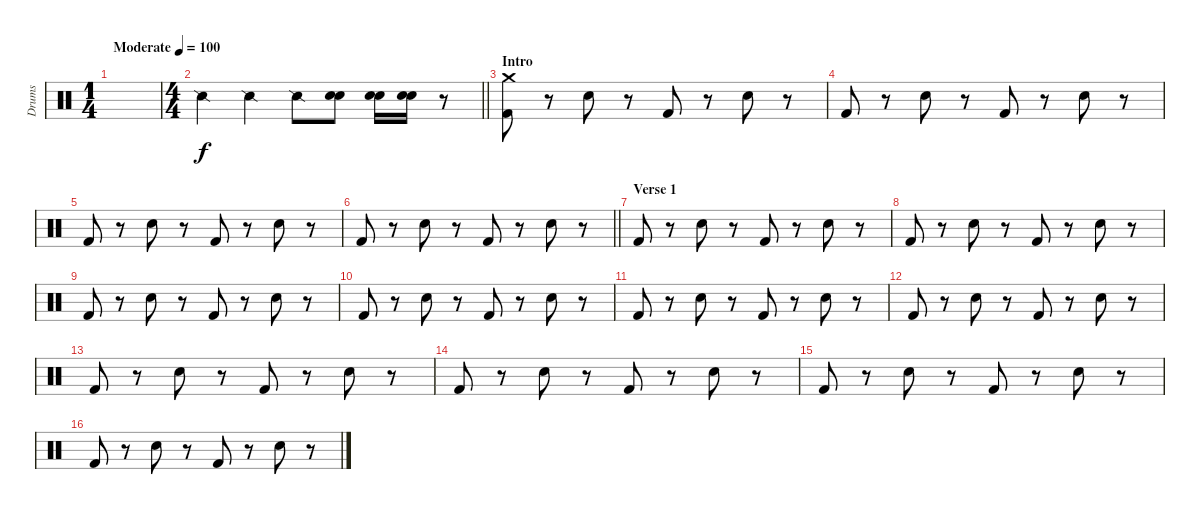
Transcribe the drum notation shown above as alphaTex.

\track ("Drums" "Drums") {instrument percussion}
\staff {score}
\articulation defaults
\ts (1 4)
\tempo (100 "Moderate")
\clef neutral
\ks c
|
\ts (4 4)
\barLineRight lightlight "Snare (side stick) 2".4 "Snare (side stick) 2".4 "Snare (side stick) 2".8
("Snare (hit) 2" "Snare (hit) 2").8 ("Snare (hit) 2" "Snare (hit) 2").16 ("Snare (hit) 2" "Snare (hit) 2").16 r.8 |
\section ("" "Intro")
("Crash medium (hit)" "Kick (hit) 2").8 r.8 "Snare (hit) 2".8 r.8 "Kick (hit) 2".8 r.8 "Snare (hit) 2".8 r.8 |
"Kick (hit) 2".8 r.8 "Snare (hit) 2".8 r.8 "Kick (hit) 2".8 r.8 "Snare (hit) 2".8 r.8 |
"Kick (hit) 2".8 r.8 "Snare (hit) 2".8 r.8 "Kick (hit) 2".8 r.8 "Snare (hit) 2".8 r.8 |
\barLineRight lightlight "Kick (hit) 2".8
r.8 "Snare (hit) 2".8 r.8 "Kick (hit) 2".8 r.8 "Snare (hit) 2".8 r.8 |
\section ("" "Verse 1")
"Kick (hit) 2".8 r.8 "Snare (hit) 2".8 r.8 "Kick (hit) 2".8 r.8 "Snare (hit) 2".8 r.8 |
"Kick (hit) 2".8 r.8 "Snare (hit) 2".8 r.8 "Kick (hit) 2".8 r.8 "Snare (hit) 2".8 r.8 |
"Kick (hit) 2".8 r.8 "Snare (hit) 2".8 r.8 "Kick (hit) 2".8 r.8 "Snare (hit) 2".8 r.8 |
"Kick (hit) 2".8 r.8 "Snare (hit) 2".8 r.8 "Kick (hit) 2".8 r.8 "Snare (hit) 2".8 r.8 |
"Kick (hit) 2".8 r.8 "Snare (hit) 2".8 r.8 "Kick (hit) 2".8 r.8 "Snare (hit) 2".8 r.8 |
"Kick (hit) 2".8 r.8 "Snare (hit) 2".8 r.8 "Kick (hit) 2".8 r.8 "Snare (hit) 2".8 r.8 |
"Kick (hit) 2".8 r.8 "Snare (hit) 2".8 r.8 "Kick (hit) 2".8 r.8 "Snare (hit) 2".8 r.8 |
"Kick (hit) 2".8 r.8 "Snare (hit) 2".8 r.8 "Kick (hit) 2".8 r.8 "Snare (hit) 2".8 r.8 |
"Kick (hit) 2".8 r.8 "Snare (hit) 2".8 r.8 "Kick (hit) 2".8 r.8 "Snare (hit) 2".8 r.8 |
"Kick (hit) 2".8 r.8 "Snare (hit) 2".8 r.8 "Kick (hit) 2".8 r.8 "Snare (hit) 2".8 r.8
